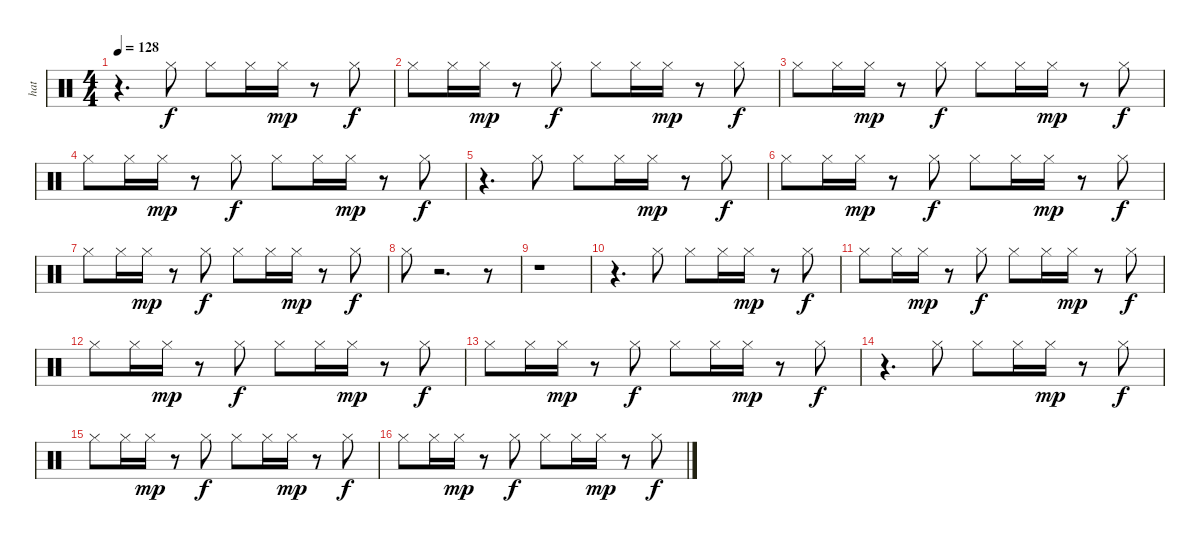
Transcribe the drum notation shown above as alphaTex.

\track ("hat" "hat") {instrument percussion}
\staff {score}
\articulation defaults
\ts (4 4)
\tempo 128
\clef neutral
\ks c
r.4{d dy f} "Hi-Hat (closed)".8 "Hi-Hat (closed)".8 "Hi-Hat (closed)".16 "Hi-Hat (closed)".16{dy mp} r.8 "Hi-Hat (closed)".8{dy f} |
"Hi-Hat (closed)".8 "Hi-Hat (closed)".16 "Hi-Hat (closed)".16{dy mp} r.8 "Hi-Hat (closed)".8{dy f} "Hi-Hat (closed)".8 "Hi-Hat (closed)".16 "Hi-Hat (closed)".16{dy mp} r.8 "Hi-Hat (closed)".8{dy f} |
"Hi-Hat (closed)".8 "Hi-Hat (closed)".16 "Hi-Hat (closed)".16{dy mp} r.8 "Hi-Hat (closed)".8{dy f} "Hi-Hat (closed)".8 "Hi-Hat (closed)".16 "Hi-Hat (closed)".16{dy mp} r.8 "Hi-Hat (closed)".8{dy f} |
"Hi-Hat (closed)".8 "Hi-Hat (closed)".16 "Hi-Hat (closed)".16{dy mp} r.8 "Hi-Hat (closed)".8{dy f} "Hi-Hat (closed)".8 "Hi-Hat (closed)".16 "Hi-Hat (closed)".16{dy mp} r.8 "Hi-Hat (closed)".8{dy f} |
r.4{d} "Hi-Hat (closed)".8 "Hi-Hat (closed)".8 "Hi-Hat (closed)".16 "Hi-Hat (closed)".16{dy mp} r.8 "Hi-Hat (closed)".8{dy f} |
"Hi-Hat (closed)".8 "Hi-Hat (closed)".16 "Hi-Hat (closed)".16{dy mp} r.8 "Hi-Hat (closed)".8{dy f} "Hi-Hat (closed)".8 "Hi-Hat (closed)".16 "Hi-Hat (closed)".16{dy mp} r.8 "Hi-Hat (closed)".8{dy f} |
"Hi-Hat (closed)".8 "Hi-Hat (closed)".16 "Hi-Hat (closed)".16{dy mp} r.8 "Hi-Hat (closed)".8{dy f} "Hi-Hat (closed)".8 "Hi-Hat (closed)".16 "Hi-Hat (closed)".16{dy mp} r.8 "Hi-Hat (closed)".8{dy f} |
"Hi-Hat (closed)".8 r.2{d} r.8 |
r.1 |
r.4{d} "Hi-Hat (closed)".8 "Hi-Hat (closed)".8 "Hi-Hat (closed)".16 "Hi-Hat (closed)".16{dy mp} r.8 "Hi-Hat (closed)".8{dy f} |
"Hi-Hat (closed)".8 "Hi-Hat (closed)".16 "Hi-Hat (closed)".16{dy mp} r.8 "Hi-Hat (closed)".8{dy f} "Hi-Hat (closed)".8 "Hi-Hat (closed)".16 "Hi-Hat (closed)".16{dy mp} r.8 "Hi-Hat (closed)".8{dy f} |
"Hi-Hat (closed)".8 "Hi-Hat (closed)".16 "Hi-Hat (closed)".16{dy mp} r.8 "Hi-Hat (closed)".8{dy f} "Hi-Hat (closed)".8 "Hi-Hat (closed)".16 "Hi-Hat (closed)".16{dy mp} r.8 "Hi-Hat (closed)".8{dy f} |
"Hi-Hat (closed)".8 "Hi-Hat (closed)".16 "Hi-Hat (closed)".16{dy mp} r.8 "Hi-Hat (closed)".8{dy f} "Hi-Hat (closed)".8 "Hi-Hat (closed)".16 "Hi-Hat (closed)".16{dy mp} r.8 "Hi-Hat (closed)".8{dy f} |
r.4{d} "Hi-Hat (closed)".8 "Hi-Hat (closed)".8 "Hi-Hat (closed)".16 "Hi-Hat (closed)".16{dy mp} r.8 "Hi-Hat (closed)".8{dy f} |
"Hi-Hat (closed)".8 "Hi-Hat (closed)".16 "Hi-Hat (closed)".16{dy mp} r.8 "Hi-Hat (closed)".8{dy f} "Hi-Hat (closed)".8 "Hi-Hat (closed)".16 "Hi-Hat (closed)".16{dy mp} r.8 "Hi-Hat (closed)".8{dy f} |
"Hi-Hat (closed)".8 "Hi-Hat (closed)".16 "Hi-Hat (closed)".16{dy mp} r.8 "Hi-Hat (closed)".8{dy f} "Hi-Hat (closed)".8 "Hi-Hat (closed)".16 "Hi-Hat (closed)".16{dy mp} r.8 "Hi-Hat (closed)".8{dy f}
